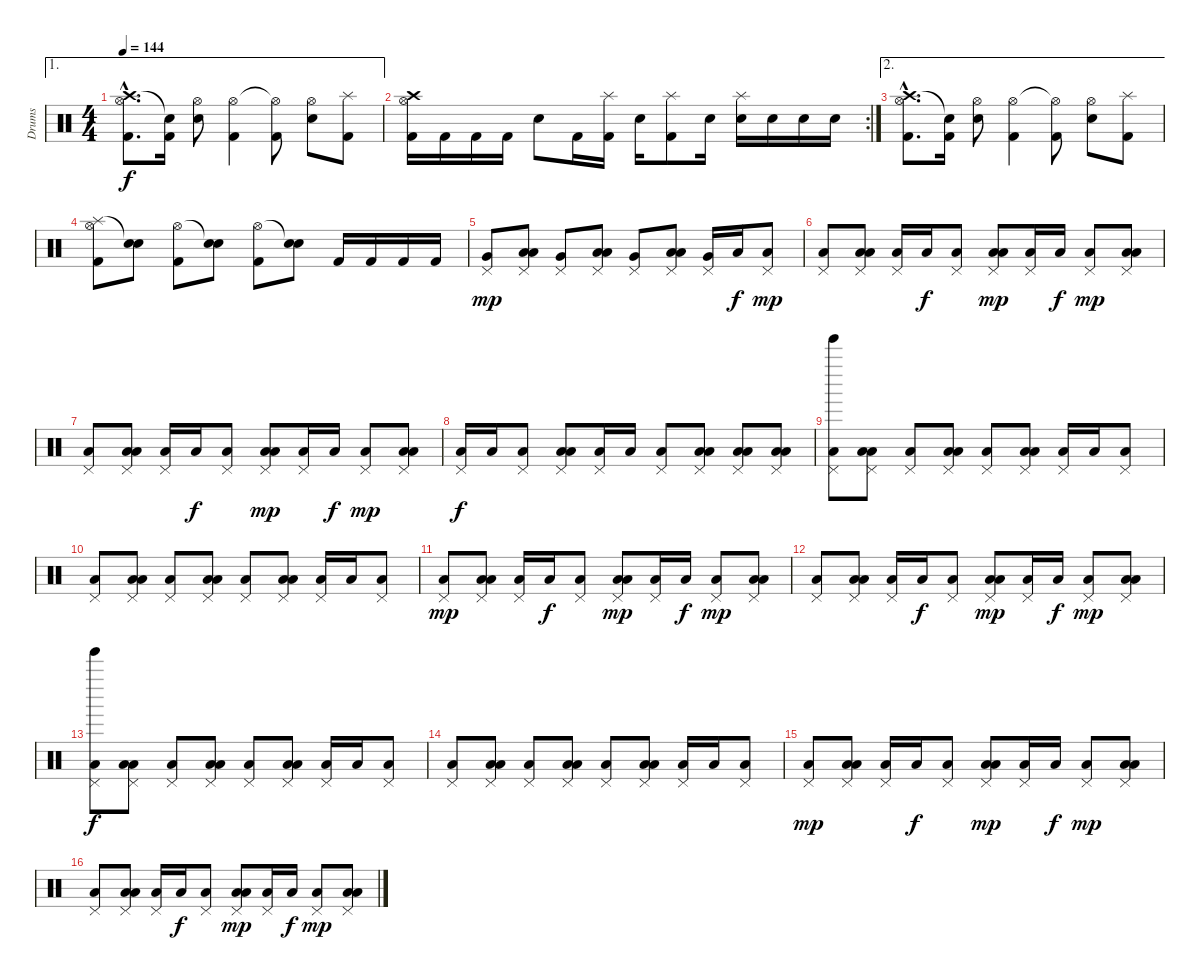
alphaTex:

\track ("Drums" "Drums") {instrument percussion}
\staff {score}
\articulation defaults
\ae 1
\ts (4 4)
\tempo 144
\clef neutral
\ks c
("Crash high (hit)"{hac} "Hi-Hat (open)"{hac} "Kick (hit) 2"{hac}).8{d dy f} ("Snare (hit)"{t} "Kick (hit) 2").16 ("Hi-Hat (open)" "Snare (hit) 2").8 ("Hi-Hat (open)" "Kick (hit) 2").4 ("Hi-Hat (open)"{t} "Kick (hit) 2").8 ("Hi-Hat (open)" "Snare (hit) 2").8 ("Splash (hit)" "Kick (hit) 2").8 |
\rc 2
("Crash high (hit)" "Hi-Hat (open)" "Kick (hit) 2").16 "Kick (hit) 2".16 "Kick (hit) 2".16 "Kick (hit) 2".16 "Snare (hit) 2".8 "Kick (hit) 2".16 ("Splash (hit)" "Kick (hit) 2").16 "Snare (hit) 2".16 ("Splash (hit)" "Kick (hit) 2").8 "Snare (hit) 2".16 ("Splash (hit)" "Snare (hit) 2").16 "Snare (hit) 2".16 "Snare (hit) 2".16 "Snare (hit) 2".16 |
\ae 2
("Crash high (hit)"{hac} "Hi-Hat (open)"{hac} "Kick (hit) 2"{hac}).8{d} ("Snare (hit)"{t} "Kick (hit) 2").16 ("Hi-Hat (open)" "Snare (hit) 2").8 ("Hi-Hat (open)" "Kick (hit) 2").4 ("Hi-Hat (open)"{t} "Kick (hit) 2").8 ("Hi-Hat (open)" "Snare (hit) 2").8 ("Splash (hit)" "Kick (hit) 2").8 |
("Splash (hit)" "Hi-Hat (open)" "Kick (hit) 2").8 ("Snare (hit)"{t} "Snare (hit) 2").8 ("Hi-Hat (open)" "Kick (hit) 2").8 ("Snare (hit)"{t} "Snare (hit) 2").8 ("Hi-Hat (open)" "Kick (hit) 2").8 ("Snare (hit)"{t} "Snare (hit) 2").8 "Kick (hit) 2".16 "Kick (hit) 2".16 "Kick (hit) 2".16 "Kick (hit) 2".16 |
("Pedal Hi-Hat (hit)" "Very Low Tom (hit)").8{dy mp} ("Pedal Hi-Hat (hit)" "Low Floor Tom (hit)" "Low Tom (hit)").8 ("Pedal Hi-Hat (hit)" "Very Low Tom (hit)").8 ("Pedal Hi-Hat (hit)" "Low Floor Tom (hit)" "Low Tom (hit)").8 ("Pedal Hi-Hat (hit)" "Very Low Tom (hit)").8 ("Pedal Hi-Hat (hit)" "Low Floor Tom (hit)" "Low Tom (hit)").8 ("Pedal Hi-Hat (hit)" "Very Low Tom (hit)").16 "Low Tom (hit)".16{dy f} ("Pedal Hi-Hat (hit)" "Low Floor Tom (hit)").8{dy mp} |
("Pedal Hi-Hat (hit)" "Low Floor Tom (hit)").8 ("Pedal Hi-Hat (hit)" "Low Floor Tom (hit)" "Low Tom (hit)").8 ("Pedal Hi-Hat (hit)" "Low Floor Tom (hit)").16 "Low Tom (hit)".16{dy f} ("Pedal Hi-Hat (hit)" "Low Floor Tom (hit)").8 ("Pedal Hi-Hat (hit)" "Low Floor Tom (hit)" "Low Tom (hit)").8{dy mp} ("Pedal Hi-Hat (hit)" "Low Floor Tom (hit)").16 "Low Tom (hit)".16{dy f} ("Pedal Hi-Hat (hit)" "Low Floor Tom (hit)").8{dy mp} ("Pedal Hi-Hat (hit)" "Low Floor Tom (hit)" "Low Tom (hit)").8 |
("Pedal Hi-Hat (hit)" "Low Floor Tom (hit)").8 ("Pedal Hi-Hat (hit)" "Low Floor Tom (hit)" "Low Tom (hit)").8 ("Pedal Hi-Hat (hit)" "Low Floor Tom (hit)").16 "Low Tom (hit)".16{dy f} ("Pedal Hi-Hat (hit)" "Low Floor Tom (hit)").8 ("Pedal Hi-Hat (hit)" "Low Floor Tom (hit)" "Low Tom (hit)").8{dy mp} ("Pedal Hi-Hat (hit)" "Low Floor Tom (hit)").16 "Low Tom (hit)".16{dy f} ("Pedal Hi-Hat (hit)" "Low Floor Tom (hit)").8{dy mp} ("Pedal Hi-Hat (hit)" "Low Floor Tom (hit)" "Low Tom (hit)").8 |
("Pedal Hi-Hat (hit)" "Low Floor Tom (hit)").16{dy f} "Low Tom (hit)".16 ("Pedal Hi-Hat (hit)" "Low Floor Tom (hit)").8 ("Pedal Hi-Hat (hit)" "Low Floor Tom (hit)" "Low Tom (hit)").8 ("Pedal Hi-Hat (hit)" "Low Floor Tom (hit)").16 "Low Tom (hit)".16 ("Pedal Hi-Hat (hit)" "Low Floor Tom (hit)").8 ("Pedal Hi-Hat (hit)" "Low Tom (hit)" "Low Tom (hit)").8 ("Pedal Hi-Hat (hit)" "Low Tom (hit)" "Low Tom (hit)").8 ("Pedal Hi-Hat (hit)" "Low Tom (hit)" "Low Tom (hit)").8 |
("Pedal Hi-Hat (hit)" "Low Floor Tom (hit)" "Tinkle Bell (hit)").8 ("Pedal Hi-Hat (hit)" "Low Floor Tom (hit)" "Low Tom (hit)").8 ("Pedal Hi-Hat (hit)" "Low Floor Tom (hit)").8 ("Pedal Hi-Hat (hit)" "Low Floor Tom (hit)" "Low Tom (hit)").8 ("Pedal Hi-Hat (hit)" "Low Floor Tom (hit)").8 ("Pedal Hi-Hat (hit)" "Low Floor Tom (hit)" "Low Tom (hit)").8 ("Pedal Hi-Hat (hit)" "Low Floor Tom (hit)").16 "Low Tom (hit)".16 ("Pedal Hi-Hat (hit)" "Low Floor Tom (hit)").8 |
("Pedal Hi-Hat (hit)" "Low Floor Tom (hit)").8 ("Pedal Hi-Hat (hit)" "Low Floor Tom (hit)" "Low Tom (hit)").8 ("Pedal Hi-Hat (hit)" "Low Floor Tom (hit)").8 ("Pedal Hi-Hat (hit)" "Low Floor Tom (hit)" "Low Tom (hit)").8 ("Pedal Hi-Hat (hit)" "Low Floor Tom (hit)").8 ("Pedal Hi-Hat (hit)" "Low Floor Tom (hit)" "Low Tom (hit)").8 ("Pedal Hi-Hat (hit)" "Low Floor Tom (hit)").16 "Low Tom (hit)".16 ("Pedal Hi-Hat (hit)" "Low Floor Tom (hit)").8 |
("Pedal Hi-Hat (hit)" "Low Floor Tom (hit)").8{dy mp} ("Pedal Hi-Hat (hit)" "Low Floor Tom (hit)" "Low Tom (hit)").8 ("Pedal Hi-Hat (hit)" "Low Floor Tom (hit)").16 "Low Tom (hit)".16{dy f} ("Pedal Hi-Hat (hit)" "Low Floor Tom (hit)").8 ("Pedal Hi-Hat (hit)" "Low Floor Tom (hit)" "Low Tom (hit)").8{dy mp} ("Pedal Hi-Hat (hit)" "Low Floor Tom (hit)").16 "Low Tom (hit)".16{dy f} ("Pedal Hi-Hat (hit)" "Low Floor Tom (hit)").8{dy mp} ("Pedal Hi-Hat (hit)" "Low Floor Tom (hit)" "Low Tom (hit)").8 |
("Pedal Hi-Hat (hit)" "Low Floor Tom (hit)").8 ("Pedal Hi-Hat (hit)" "Low Floor Tom (hit)" "Low Tom (hit)").8 ("Pedal Hi-Hat (hit)" "Low Floor Tom (hit)").16 "Low Tom (hit)".16{dy f} ("Pedal Hi-Hat (hit)" "Low Floor Tom (hit)").8 ("Pedal Hi-Hat (hit)" "Low Floor Tom (hit)" "Low Tom (hit)").8{dy mp} ("Pedal Hi-Hat (hit)" "Low Floor Tom (hit)").16 "Low Tom (hit)".16{dy f} ("Pedal Hi-Hat (hit)" "Low Floor Tom (hit)").8{dy mp} ("Pedal Hi-Hat (hit)" "Low Floor Tom (hit)" "Low Tom (hit)").8 |
("Pedal Hi-Hat (hit)" "Low Floor Tom (hit)" "Tinkle Bell (hit)").8{dy f} ("Pedal Hi-Hat (hit)" "Low Floor Tom (hit)" "Low Tom (hit)").8 ("Pedal Hi-Hat (hit)" "Low Floor Tom (hit)").8 ("Pedal Hi-Hat (hit)" "Low Floor Tom (hit)" "Low Tom (hit)").8 ("Pedal Hi-Hat (hit)" "Low Floor Tom (hit)").8 ("Pedal Hi-Hat (hit)" "Low Floor Tom (hit)" "Low Tom (hit)").8 ("Pedal Hi-Hat (hit)" "Low Floor Tom (hit)").16 "Low Tom (hit)".16 ("Pedal Hi-Hat (hit)" "Low Floor Tom (hit)").8 |
("Pedal Hi-Hat (hit)" "Low Floor Tom (hit)").8 ("Pedal Hi-Hat (hit)" "Low Floor Tom (hit)" "Low Tom (hit)").8 ("Pedal Hi-Hat (hit)" "Low Floor Tom (hit)").8 ("Pedal Hi-Hat (hit)" "Low Floor Tom (hit)" "Low Tom (hit)").8 ("Pedal Hi-Hat (hit)" "Low Floor Tom (hit)").8 ("Pedal Hi-Hat (hit)" "Low Floor Tom (hit)" "Low Tom (hit)").8 ("Pedal Hi-Hat (hit)" "Low Floor Tom (hit)").16 "Low Tom (hit)".16 ("Pedal Hi-Hat (hit)" "Low Floor Tom (hit)").8 |
("Pedal Hi-Hat (hit)" "Low Floor Tom (hit)").8{dy mp} ("Pedal Hi-Hat (hit)" "Low Floor Tom (hit)" "Low Tom (hit)").8 ("Pedal Hi-Hat (hit)" "Low Floor Tom (hit)").16 "Low Tom (hit)".16{dy f} ("Pedal Hi-Hat (hit)" "Low Floor Tom (hit)").8 ("Pedal Hi-Hat (hit)" "Low Floor Tom (hit)" "Low Tom (hit)").8{dy mp} ("Pedal Hi-Hat (hit)" "Low Floor Tom (hit)").16 "Low Tom (hit)".16{dy f} ("Pedal Hi-Hat (hit)" "Low Floor Tom (hit)").8{dy mp} ("Pedal Hi-Hat (hit)" "Low Floor Tom (hit)" "Low Tom (hit)").8 |
("Pedal Hi-Hat (hit)" "Low Floor Tom (hit)").8 ("Pedal Hi-Hat (hit)" "Low Floor Tom (hit)" "Low Tom (hit)").8 ("Pedal Hi-Hat (hit)" "Low Floor Tom (hit)").16 "Low Tom (hit)".16{dy f} ("Pedal Hi-Hat (hit)" "Low Floor Tom (hit)").8 ("Pedal Hi-Hat (hit)" "Low Floor Tom (hit)" "Low Tom (hit)").8{dy mp} ("Pedal Hi-Hat (hit)" "Low Floor Tom (hit)").16 "Low Tom (hit)".16{dy f} ("Pedal Hi-Hat (hit)" "Low Floor Tom (hit)").8{dy mp} ("Pedal Hi-Hat (hit)" "Low Floor Tom (hit)" "Low Tom (hit)").8
